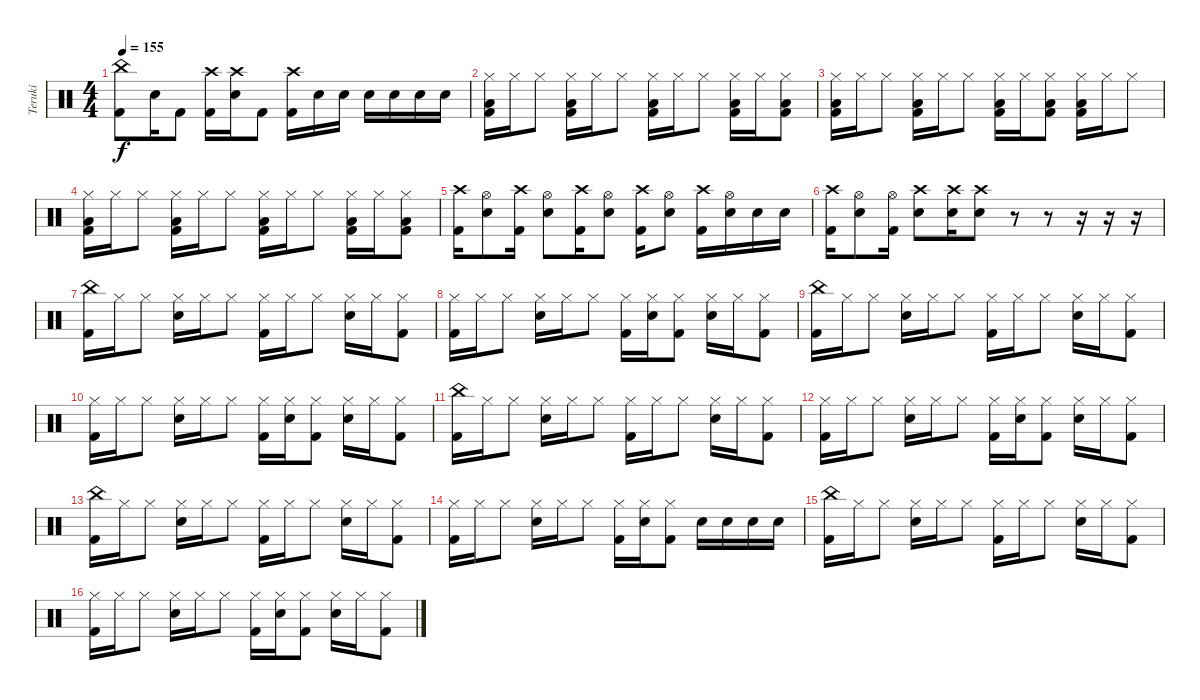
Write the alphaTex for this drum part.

\track ("Teruki" "Teruki") {instrument percussion}
\staff {score}
\articulation defaults
\ts (4 4)
\tempo 155
\clef neutral
\ks c
("China (hit)" "Kick (hit) 2").8{dy f} "Snare (hit) 2".16 "Kick (hit) 2".8 ("Crash high (hit)" "Kick (hit) 2").16 ("Crash high (hit)" "Snare (hit) 2").16 "Kick (hit) 2".8 ("Crash high (hit)" "Kick (hit) 2").16 "Snare (hit) 2".16 "Snare (hit) 2".16 "Snare (hit) 2".16 "Snare (hit) 2".16 "Snare (hit) 2".16 "Snare (hit) 2".16 |
("Hi-Hat (closed)" "Kick (hit) 2" "Low Tom (hit)").16 "Hi-Hat (closed)".16 "Hi-Hat (closed)".8 ("Hi-Hat (closed)" "Kick (hit) 2" "Low Tom (hit)").16 "Hi-Hat (closed)".16 "Hi-Hat (closed)".8 ("Hi-Hat (closed)" "Kick (hit) 2" "Low Tom (hit)").16 "Hi-Hat (closed)".16 "Hi-Hat (closed)".8 ("Hi-Hat (closed)" "Kick (hit) 2" "Low Tom (hit)").16 "Hi-Hat (closed)".16 ("Hi-Hat (closed)" "Kick (hit) 2" "Low Tom (hit)").8 |
("Hi-Hat (closed)" "Kick (hit) 2" "Low Tom (hit)").16 "Hi-Hat (closed)".16 "Hi-Hat (closed)".8 ("Hi-Hat (closed)" "Kick (hit) 2" "Low Tom (hit)").16 "Hi-Hat (closed)".16 "Hi-Hat (closed)".8 ("Hi-Hat (closed)" "Kick (hit) 2" "Low Tom (hit)").16 "Hi-Hat (closed)".16 ("Hi-Hat (closed)" "Kick (hit) 2" "Low Tom (hit)").8 ("Hi-Hat (closed)" "Kick (hit) 2" "Low Tom (hit)").16 "Hi-Hat (closed)".16 "Hi-Hat (closed)".8 |
("Hi-Hat (closed)" "Kick (hit) 2" "Low Tom (hit)").16 "Hi-Hat (closed)".16 "Hi-Hat (closed)".8 ("Hi-Hat (closed)" "Kick (hit) 2" "Low Tom (hit)").16 "Hi-Hat (closed)".16 "Hi-Hat (closed)".8 ("Hi-Hat (closed)" "Kick (hit) 2" "Low Tom (hit)").16 "Hi-Hat (closed)".16 "Hi-Hat (closed)".8 ("Hi-Hat (closed)" "Kick (hit) 2" "Low Tom (hit)").16 "Hi-Hat (closed)".16 ("Hi-Hat (closed)" "Kick (hit) 2" "Low Tom (hit)").8 |
("Crash high (hit)" "Kick (hit) 2").16 ("Hi-Hat (open)" "Snare (hit) 2").8 ("Crash high (hit)" "Kick (hit) 2").16 ("Hi-Hat (open)" "Snare (hit) 2").8 ("Crash high (hit)" "Kick (hit) 2").16 ("Hi-Hat (open)" "Snare (hit) 2").8 ("Crash high (hit)" "Kick (hit) 2").16 ("Hi-Hat (open)" "Snare (hit) 2").8 ("Crash high (hit)" "Kick (hit) 2").16 ("Hi-Hat (open)" "Snare (hit) 2").16 "Snare (hit) 2".16 "Snare (hit) 2".16 |
("Crash high (hit)" "Kick (hit) 2").16 ("Hi-Hat (open)" "Snare (hit) 2").8 ("Hi-Hat (open)" "Kick (hit) 2").16 ("Crash high (hit)" "Snare (hit) 2").8 ("Crash high (hit)" "Snare (hit) 2").16 ("Crash high (hit)" "Snare (hit) 2").8 r.8 r.8 r.16 r.16 r.16 |
("China (hit)" "Kick (hit) 2").16 "Hi-Hat (closed)".16 "Hi-Hat (closed)".8 ("Hi-Hat (closed)" "Snare (hit) 2").16 "Hi-Hat (closed)".16 "Hi-Hat (closed)".8 ("Hi-Hat (closed)" "Kick (hit) 2").16 "Hi-Hat (closed)".16 "Hi-Hat (closed)".8 ("Hi-Hat (closed)" "Snare (hit) 2").16 "Hi-Hat (closed)".16 ("Hi-Hat (closed)" "Kick (hit) 2").8 |
("Hi-Hat (closed)" "Kick (hit) 2").16 "Hi-Hat (closed)".16 "Hi-Hat (closed)".8 ("Hi-Hat (closed)" "Snare (hit) 2").16 "Hi-Hat (closed)".16 "Hi-Hat (closed)".8 ("Hi-Hat (closed)" "Kick (hit) 2").16 ("Hi-Hat (closed)" "Snare (hit) 2").16 ("Hi-Hat (closed)" "Kick (hit) 2").8 ("Hi-Hat (closed)" "Snare (hit) 2").16 "Hi-Hat (closed)".16 ("Hi-Hat (closed)" "Kick (hit) 2").8 |
("China (hit)" "Kick (hit) 2").16 "Hi-Hat (closed)".16 "Hi-Hat (closed)".8 ("Hi-Hat (closed)" "Snare (hit) 2").16 "Hi-Hat (closed)".16 "Hi-Hat (closed)".8 ("Hi-Hat (closed)" "Kick (hit) 2").16 "Hi-Hat (closed)".16 "Hi-Hat (closed)".8 ("Hi-Hat (closed)" "Snare (hit) 2").16 "Hi-Hat (closed)".16 ("Hi-Hat (closed)" "Kick (hit) 2").8 |
("Hi-Hat (closed)" "Kick (hit) 2").16 "Hi-Hat (closed)".16 "Hi-Hat (closed)".8 ("Hi-Hat (closed)" "Snare (hit) 2").16 "Hi-Hat (closed)".16 "Hi-Hat (closed)".8 ("Hi-Hat (closed)" "Kick (hit) 2").16 ("Hi-Hat (closed)" "Snare (hit) 2").16 ("Hi-Hat (closed)" "Kick (hit) 2").8 ("Hi-Hat (closed)" "Snare (hit) 2").16 "Hi-Hat (closed)".16 ("Hi-Hat (closed)" "Kick (hit) 2").8 |
("China (hit)" "Kick (hit) 2").16 "Hi-Hat (closed)".16 "Hi-Hat (closed)".8 ("Hi-Hat (closed)" "Snare (hit) 2").16 "Hi-Hat (closed)".16 "Hi-Hat (closed)".8 ("Hi-Hat (closed)" "Kick (hit) 2").16 "Hi-Hat (closed)".16 "Hi-Hat (closed)".8 ("Hi-Hat (closed)" "Snare (hit) 2").16 "Hi-Hat (closed)".16 ("Hi-Hat (closed)" "Kick (hit) 2").8 |
("Hi-Hat (closed)" "Kick (hit) 2").16 "Hi-Hat (closed)".16 "Hi-Hat (closed)".8 ("Hi-Hat (closed)" "Snare (hit) 2").16 "Hi-Hat (closed)".16 "Hi-Hat (closed)".8 ("Hi-Hat (closed)" "Kick (hit) 2").16 ("Hi-Hat (closed)" "Snare (hit) 2").16 ("Hi-Hat (closed)" "Kick (hit) 2").8 ("Hi-Hat (closed)" "Snare (hit) 2").16 "Hi-Hat (closed)".16 ("Hi-Hat (closed)" "Kick (hit) 2").8 |
("China (hit)" "Kick (hit) 2").16 "Hi-Hat (closed)".16 "Hi-Hat (closed)".8 ("Hi-Hat (closed)" "Snare (hit) 2").16 "Hi-Hat (closed)".16 "Hi-Hat (closed)".8 ("Hi-Hat (closed)" "Kick (hit) 2").16 "Hi-Hat (closed)".16 "Hi-Hat (closed)".8 ("Hi-Hat (closed)" "Snare (hit) 2").16 "Hi-Hat (closed)".16 ("Hi-Hat (closed)" "Kick (hit) 2").8 |
("Hi-Hat (closed)" "Kick (hit) 2").16 "Hi-Hat (closed)".16 "Hi-Hat (closed)".8 ("Hi-Hat (closed)" "Snare (hit) 2").16 "Hi-Hat (closed)".16 "Hi-Hat (closed)".8 ("Hi-Hat (closed)" "Kick (hit) 2").16 ("Hi-Hat (closed)" "Snare (hit) 2").16 ("Hi-Hat (closed)" "Kick (hit) 2").8 "Snare (hit) 2".16 "Snare (hit) 2".16 "Snare (hit) 2".16 "Snare (hit) 2".16 |
("China (hit)" "Kick (hit) 2").16 "Hi-Hat (closed)".16 "Hi-Hat (closed)".8 ("Hi-Hat (closed)" "Snare (hit) 2").16 "Hi-Hat (closed)".16 "Hi-Hat (closed)".8 ("Hi-Hat (closed)" "Kick (hit) 2").16 "Hi-Hat (closed)".16 "Hi-Hat (closed)".8 ("Hi-Hat (closed)" "Snare (hit) 2").16 "Hi-Hat (closed)".16 ("Hi-Hat (closed)" "Kick (hit) 2").8 |
("Hi-Hat (closed)" "Kick (hit) 2").16 "Hi-Hat (closed)".16 "Hi-Hat (closed)".8 ("Hi-Hat (closed)" "Snare (hit) 2").16 "Hi-Hat (closed)".16 "Hi-Hat (closed)".8 ("Hi-Hat (closed)" "Kick (hit) 2").16 ("Hi-Hat (closed)" "Snare (hit) 2").16 ("Hi-Hat (closed)" "Kick (hit) 2").8 ("Hi-Hat (closed)" "Snare (hit) 2").16 "Hi-Hat (closed)".16 ("Hi-Hat (closed)" "Kick (hit) 2").8
